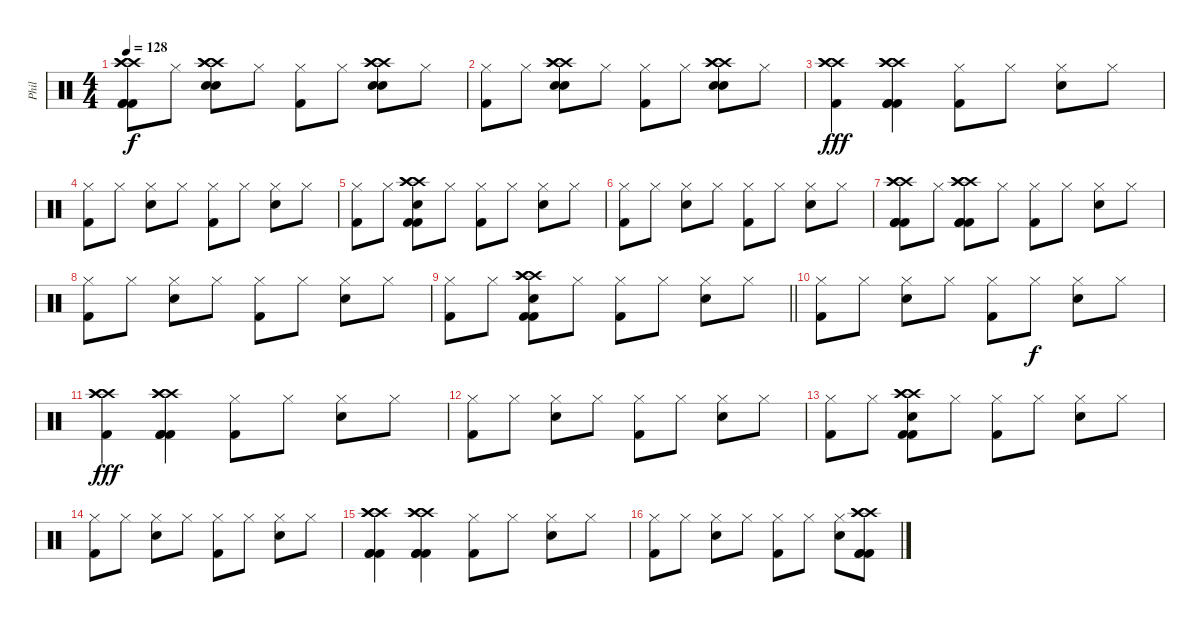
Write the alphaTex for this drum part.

\track ("Phil" "Phil") {instrument percussion}
\staff {score}
\articulation defaults
\ts (4 4)
\tempo 128
\clef neutral
\ks c
("Crash high (hit)" "Crash high (hit)" "Crash high (hit)" "Kick (hit) 2" "Kick (hit) 2" "Kick (hit) 2").8{dy f} "Hi-Hat (closed)".8 ("Crash high (hit)" "Crash high (hit)" "Crash high (hit)" "Electric Snare (hit)" "Electric Snare (hit)").8 "Hi-Hat (closed)".8 ("Hi-Hat (closed)" "Kick (hit) 2").8 "Hi-Hat (closed)".8 ("Crash high (hit)" "Crash high (hit)" "Crash high (hit)" "Electric Snare (hit)" "Electric Snare (hit)").8 "Hi-Hat (closed)".8 |
("Hi-Hat (closed)" "Kick (hit) 2").8 "Hi-Hat (closed)".8 ("Crash high (hit)" "Crash high (hit)" "Crash high (hit)" "Electric Snare (hit)" "Electric Snare (hit)").8 "Hi-Hat (closed)".8 ("Hi-Hat (closed)" "Kick (hit) 2").8 "Hi-Hat (closed)".8 ("Crash high (hit)" "Crash high (hit)" "Crash high (hit)" "Electric Snare (hit)" "Electric Snare (hit)").8 "Hi-Hat (closed)".8 |
("Crash high (hit)" "Crash high (hit)" "Crash high (hit)" "Kick (hit) 2").4{dy fff} ("Crash high (hit)" "Crash high (hit)" "Crash high (hit)" "Kick (hit) 2" "Kick (hit) 2" "Kick (hit) 2").4 ("Hi-Hat (closed)" "Kick (hit) 2").8 "Hi-Hat (closed)".8 ("Hi-Hat (closed)" "Electric Snare (hit)").8 "Hi-Hat (closed)".8 |
("Hi-Hat (closed)" "Kick (hit) 2").8 "Hi-Hat (closed)".8 ("Hi-Hat (closed)" "Electric Snare (hit)").8 "Hi-Hat (closed)".8 ("Hi-Hat (closed)" "Kick (hit) 2").8 "Hi-Hat (closed)".8 ("Hi-Hat (closed)" "Electric Snare (hit)").8 "Hi-Hat (closed)".8 |
("Hi-Hat (closed)" "Kick (hit) 2").8 "Hi-Hat (closed)".8 ("Crash high (hit)" "Crash high (hit)" "Crash high (hit)" "Electric Snare (hit)" "Kick (hit) 2" "Kick (hit) 2").8 "Hi-Hat (closed)".8 ("Hi-Hat (closed)" "Kick (hit) 2").8 "Hi-Hat (closed)".8 ("Hi-Hat (closed)" "Electric Snare (hit)").8 "Hi-Hat (closed)".8 |
("Hi-Hat (closed)" "Kick (hit) 2").8 "Hi-Hat (closed)".8 ("Hi-Hat (closed)" "Electric Snare (hit)").8 "Hi-Hat (closed)".8 ("Hi-Hat (closed)" "Kick (hit) 2").8 "Hi-Hat (closed)".8 ("Hi-Hat (closed)" "Electric Snare (hit)").8 "Hi-Hat (closed)".8 |
("Crash high (hit)" "Crash high (hit)" "Crash high (hit)" "Kick (hit) 2" "Kick (hit) 2" "Kick (hit) 2").8 "Hi-Hat (closed)".8 ("Crash high (hit)" "Crash high (hit)" "Crash high (hit)" "Kick (hit) 2" "Kick (hit) 2" "Kick (hit) 2").8 "Hi-Hat (closed)".8 ("Hi-Hat (closed)" "Kick (hit) 2").8 "Hi-Hat (closed)".8 ("Hi-Hat (closed)" "Electric Snare (hit)").8 "Hi-Hat (closed)".8 |
("Hi-Hat (closed)" "Kick (hit) 2").8 "Hi-Hat (closed)".8 ("Hi-Hat (closed)" "Electric Snare (hit)").8 "Hi-Hat (closed)".8 ("Hi-Hat (closed)" "Kick (hit) 2").8 "Hi-Hat (closed)".8 ("Hi-Hat (closed)" "Electric Snare (hit)").8 "Hi-Hat (closed)".8 |
\barLineRight lightlight
("Hi-Hat (closed)" "Kick (hit) 2").8 "Hi-Hat (closed)".8 ("Crash high (hit)" "Crash high (hit)" "Crash high (hit)" "Electric Snare (hit)" "Kick (hit) 2" "Kick (hit) 2").8 "Hi-Hat (closed)".8 ("Hi-Hat (closed)" "Kick (hit) 2").8 "Hi-Hat (closed)".8 ("Hi-Hat (closed)" "Electric Snare (hit)").8 "Hi-Hat (closed)".8 |
("Hi-Hat (closed)" "Kick (hit) 2").8 "Hi-Hat (closed)".8 ("Hi-Hat (closed)" "Electric Snare (hit)").8 "Hi-Hat (closed)".8 ("Hi-Hat (closed)" "Kick (hit) 2").8 "Hi-Hat (closed)".8{dy f} ("Hi-Hat (closed)" "Electric Snare (hit)").8 "Hi-Hat (closed)".8 |
("Crash high (hit)" "Crash high (hit)" "Crash high (hit)" "Kick (hit) 2").4{dy fff} ("Crash high (hit)" "Crash high (hit)" "Crash high (hit)" "Kick (hit) 2" "Kick (hit) 2" "Kick (hit) 2").4 ("Hi-Hat (closed)" "Kick (hit) 2").8 "Hi-Hat (closed)".8 ("Hi-Hat (closed)" "Electric Snare (hit)").8 "Hi-Hat (closed)".8 |
("Hi-Hat (closed)" "Kick (hit) 2").8 "Hi-Hat (closed)".8 ("Hi-Hat (closed)" "Electric Snare (hit)").8 "Hi-Hat (closed)".8 ("Hi-Hat (closed)" "Kick (hit) 2").8 "Hi-Hat (closed)".8 ("Hi-Hat (closed)" "Electric Snare (hit)").8 "Hi-Hat (closed)".8 |
("Hi-Hat (closed)" "Kick (hit) 2").8 "Hi-Hat (closed)".8 ("Crash high (hit)" "Crash high (hit)" "Crash high (hit)" "Electric Snare (hit)" "Kick (hit) 2" "Kick (hit) 2").8 "Hi-Hat (closed)".8 ("Hi-Hat (closed)" "Kick (hit) 2").8 "Hi-Hat (closed)".8 ("Hi-Hat (closed)" "Electric Snare (hit)").8 "Hi-Hat (closed)".8 |
("Hi-Hat (closed)" "Kick (hit) 2").8 "Hi-Hat (closed)".8 ("Hi-Hat (closed)" "Electric Snare (hit)").8 "Hi-Hat (closed)".8 ("Hi-Hat (closed)" "Kick (hit) 2").8 "Hi-Hat (closed)".8 ("Hi-Hat (closed)" "Electric Snare (hit)").8 "Hi-Hat (closed)".8 |
("Crash high (hit)" "Crash high (hit)" "Crash high (hit)" "Kick (hit) 2" "Kick (hit) 2" "Kick (hit) 2").4 ("Crash high (hit)" "Crash high (hit)" "Crash high (hit)" "Kick (hit) 2" "Kick (hit) 2" "Kick (hit) 2").4 ("Hi-Hat (closed)" "Kick (hit) 2").8 "Hi-Hat (closed)".8 ("Hi-Hat (closed)" "Electric Snare (hit)").8 "Hi-Hat (closed)".8 |
("Hi-Hat (closed)" "Kick (hit) 2").8 "Hi-Hat (closed)".8 ("Hi-Hat (closed)" "Electric Snare (hit)").8 "Hi-Hat (closed)".8 ("Hi-Hat (closed)" "Kick (hit) 2").8 "Hi-Hat (closed)".8 ("Hi-Hat (closed)" "Electric Snare (hit)").8 ("Crash high (hit)" "Crash high (hit)" "Crash high (hit)" "Kick (hit) 2" "Kick (hit) 2" "Kick (hit) 2").8
